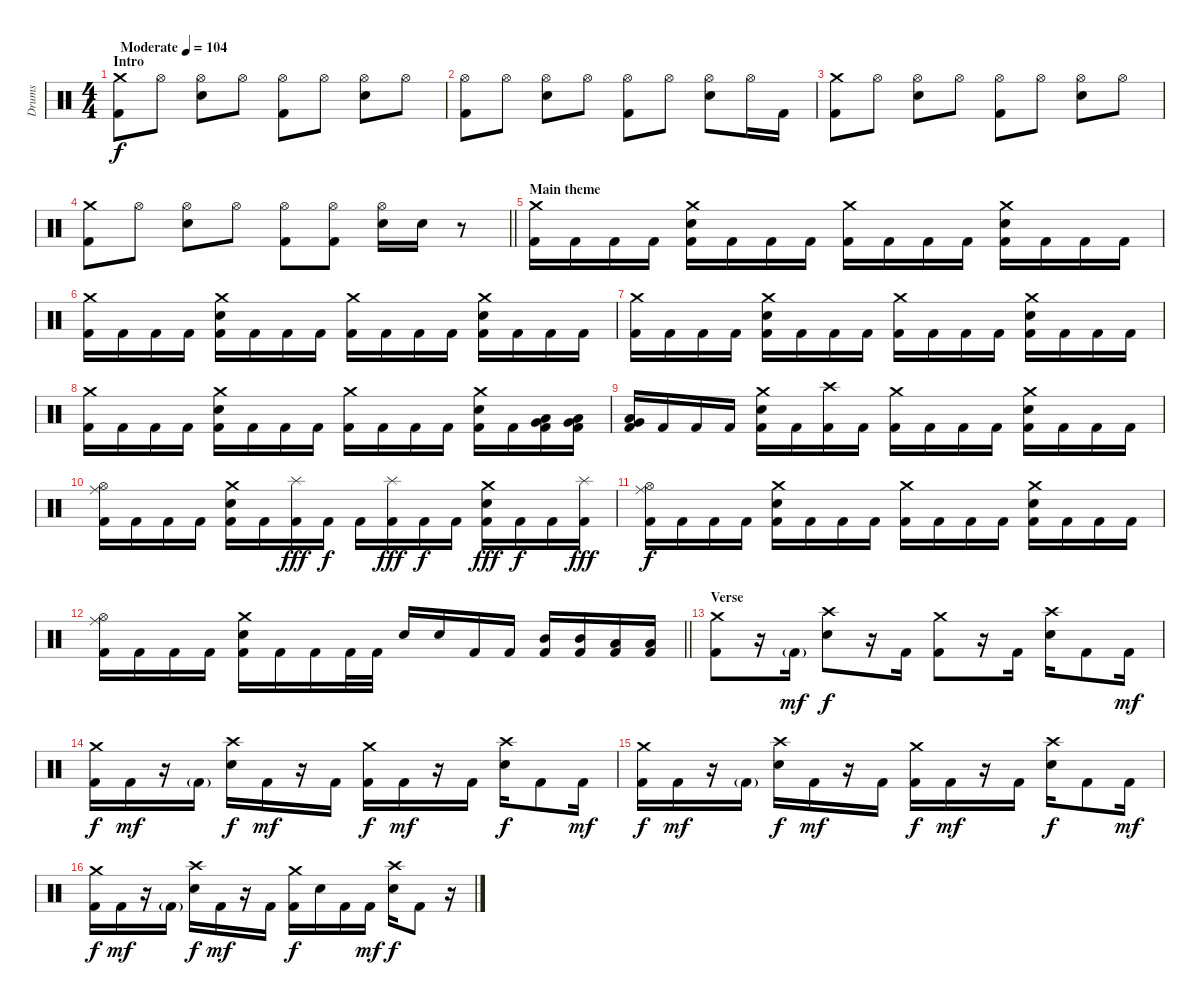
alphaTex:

\track ("Drums" "Drums") {instrument percussion}
\staff {score}
\articulation defaults
\ts (4 4)
\section ("" "Intro")
\tempo (104 "Moderate")
\clef neutral
\ks c
("Crash medium (hit)" "Kick (hit) 2").8{dy f} "Hi-Hat (open)".8 ("Hi-Hat (open)" "Electric Snare (hit)").8 "Hi-Hat (open)".8 ("Hi-Hat (open)" "Kick (hit) 2").8 "Hi-Hat (open)".8 ("Hi-Hat (open)" "Electric Snare (hit)").8 "Hi-Hat (open)".8 |
("Hi-Hat (open)" "Kick (hit) 2").8 "Hi-Hat (open)".8 ("Hi-Hat (open)" "Electric Snare (hit)").8 "Hi-Hat (open)".8 ("Hi-Hat (open)" "Kick (hit) 2").8 "Hi-Hat (open)".8 ("Hi-Hat (open)" "Electric Snare (hit)").8 "Hi-Hat (open)".16 "Kick (hit) 2".16 |
("Crash medium (hit)" "Kick (hit) 2").8 "Hi-Hat (open)".8 ("Hi-Hat (open)" "Electric Snare (hit)").8 "Hi-Hat (open)".8 ("Hi-Hat (open)" "Kick (hit) 2").8 "Hi-Hat (open)".8 ("Hi-Hat (open)" "Electric Snare (hit)").8 "Hi-Hat (open)".8 |
\barLineRight lightlight
("Crash medium (hit)" "Kick (hit) 2").8 "Hi-Hat (open)".8 ("Hi-Hat (open)" "Electric Snare (hit)").8 "Hi-Hat (open)".8 ("Hi-Hat (open)" "Kick (hit) 2").8 ("Hi-Hat (open)" "Kick (hit) 2").8 ("Hi-Hat (open)" "Electric Snare (hit)").16 "Electric Snare (hit)".16 r.8 |
\section ("" "Main theme")
("Crash medium (hit)" "Kick (hit) 2").16 "Kick (hit) 2".16 "Kick (hit) 2".16 "Kick (hit) 2".16 ("Crash medium (hit)" "Electric Snare (hit)" "Kick (hit) 2").16 "Kick (hit) 2".16 "Kick (hit) 2".16 "Kick (hit) 2".16 ("Crash medium (hit)" "Kick (hit) 2").16 "Kick (hit) 2".16 "Kick (hit) 2".16 "Kick (hit) 2".16 ("Crash medium (hit)" "Electric Snare (hit)" "Kick (hit) 2").16 "Kick (hit) 2".16 "Kick (hit) 2".16 "Kick (hit) 2".16 |
("Crash medium (hit)" "Kick (hit) 2").16 "Kick (hit) 2".16 "Kick (hit) 2".16 "Kick (hit) 2".16 ("Crash medium (hit)" "Electric Snare (hit)" "Kick (hit) 2").16 "Kick (hit) 2".16 "Kick (hit) 2".16 "Kick (hit) 2".16 ("Crash medium (hit)" "Kick (hit) 2").16 "Kick (hit) 2".16 "Kick (hit) 2".16 "Kick (hit) 2".16 ("Crash medium (hit)" "Electric Snare (hit)" "Kick (hit) 2").16 "Kick (hit) 2".16 "Kick (hit) 2".16 "Kick (hit) 2".16 |
("Crash medium (hit)" "Kick (hit) 2").16 "Kick (hit) 2".16 "Kick (hit) 2".16 "Kick (hit) 2".16 ("Crash medium (hit)" "Electric Snare (hit)" "Kick (hit) 2").16 "Kick (hit) 2".16 "Kick (hit) 2".16 "Kick (hit) 2".16 ("Crash medium (hit)" "Kick (hit) 2").16 "Kick (hit) 2".16 "Kick (hit) 2".16 "Kick (hit) 2".16 ("Crash medium (hit)" "Electric Snare (hit)" "Kick (hit) 2").16 "Kick (hit) 2".16 "Kick (hit) 2".16 "Kick (hit) 2".16 |
("Crash medium (hit)" "Kick (hit) 2").16 "Kick (hit) 2".16 "Kick (hit) 2".16 "Kick (hit) 2".16 ("Crash medium (hit)" "Electric Snare (hit)" "Kick (hit) 2").16 "Kick (hit) 2".16 "Kick (hit) 2".16 "Kick (hit) 2".16 ("Crash medium (hit)" "Kick (hit) 2").16 "Kick (hit) 2".16 "Kick (hit) 2".16 "Kick (hit) 2".16 ("Crash medium (hit)" "Electric Snare (hit)" "Kick (hit) 2").16 "Kick (hit) 2".16 ("Low Tom (hit)" "Very Low Tom (hit)" "Kick (hit) 2").16 ("Low Tom (hit)" "Very Low Tom (hit)" "Kick (hit) 2").16 |
("Low Tom (hit)" "Very Low Tom (hit)" "Kick (hit) 2").16 "Kick (hit) 2".16 "Kick (hit) 2".16 "Kick (hit) 2".16 ("Crash medium (hit)" "Electric Snare (hit)" "Kick (hit) 2").16 "Kick (hit) 2".16 ("Crash high (hit)" "Kick (hit) 2").16 "Kick (hit) 2".16 ("Crash medium (hit)" "Kick (hit) 2").16 "Kick (hit) 2".16 "Kick (hit) 2".16 "Kick (hit) 2".16 ("Crash medium (hit)" "Electric Snare (hit)" "Kick (hit) 2").16 "Kick (hit) 2".16 "Kick (hit) 2".16 "Kick (hit) 2".16 |
("Ride (middle)" "Hi-Hat (open)" "Kick (hit) 2").16 "Kick (hit) 2".16 "Kick (hit) 2".16 "Kick (hit) 2".16 ("Crash medium (hit)" "Electric Snare (hit)" "Kick (hit) 2").16 "Kick (hit) 2".16 ("Splash (hit)" "Kick (hit) 2").16{dy fff} "Kick (hit) 2".16{dy f} "Kick (hit) 2".16 ("Splash (hit)" "Kick (hit) 2").16{dy fff} "Kick (hit) 2".16{dy f} "Kick (hit) 2".16 ("Crash medium (hit)" "Electric Snare (hit)" "Kick (hit) 2").16{dy fff} "Kick (hit) 2".16{dy f} "Kick (hit) 2".16 ("Splash (hit)" "Kick (hit) 2").16{dy fff} |
("Ride (middle)" "Hi-Hat (open)" "Kick (hit) 2").16{dy f} "Kick (hit) 2".16 "Kick (hit) 2".16 "Kick (hit) 2".16 ("Crash medium (hit)" "Electric Snare (hit)" "Kick (hit) 2").16 "Kick (hit) 2".16 "Kick (hit) 2".16 "Kick (hit) 2".16 ("Crash medium (hit)" "Kick (hit) 2").16 "Kick (hit) 2".16 "Kick (hit) 2".16 "Kick (hit) 2".16 ("Crash medium (hit)" "Electric Snare (hit)" "Kick (hit) 2").16 "Kick (hit) 2".16 "Kick (hit) 2".16 "Kick (hit) 2".16 |
\barLineRight lightlight
("Ride (middle)" "Hi-Hat (open)" "Kick (hit) 2").16 "Kick (hit) 2".16 "Kick (hit) 2".16 "Kick (hit) 2".16 ("Crash medium (hit)" "Electric Snare (hit)" "Kick (hit) 2").16 "Kick (hit) 2".16 "Kick (hit) 2".16 "Kick (hit) 2".32 "Kick (hit) 2".32 "Electric Snare (hit)".16 "Electric Snare (hit)".16 "Kick (hit) 2".16 "Kick (hit) 2".16 ("Mid Tom (hit)" "Kick (hit) 2").16 ("Mid Tom (hit)" "Kick (hit) 2").16 ("Low Tom (hit)" "Kick (hit) 2").16 ("Low Tom (hit)" "Kick (hit) 2").16 |
\section ("" "Verse")
("Crash medium (hit)" "Kick (hit) 2").8 r.16 "Kick (hit) 2"{g}.16{dy mf} ("Crash high (hit)" "Electric Snare (hit)").8{dy f} r.16 "Kick (hit) 2".16 ("Crash medium (hit)" "Kick (hit) 2").8 r.16 "Kick (hit) 2".16 ("Crash high (hit)" "Electric Snare (hit)").16 "Kick (hit) 2".8 "Kick (hit) 2".16{dy mf} |
("Crash medium (hit)" "Kick (hit) 2").16{dy f} "Kick (hit) 2".16{dy mf} r.16 "Kick (hit) 2"{g}.16 ("Crash high (hit)" "Electric Snare (hit)").16{dy f} "Kick (hit) 2".16{dy mf} r.16 "Kick (hit) 2".16 ("Crash medium (hit)" "Kick (hit) 2").16{dy f} "Kick (hit) 2".16{dy mf} r.16 "Kick (hit) 2".16 ("Crash high (hit)" "Electric Snare (hit)").16{dy f} "Kick (hit) 2".8 "Kick (hit) 2".16{dy mf} |
("Crash medium (hit)" "Kick (hit) 2").16{dy f} "Kick (hit) 2".16{dy mf} r.16 "Kick (hit) 2"{g}.16 ("Crash high (hit)" "Electric Snare (hit)").16{dy f} "Kick (hit) 2".16{dy mf} r.16 "Kick (hit) 2".16 ("Crash medium (hit)" "Kick (hit) 2").16{dy f} "Kick (hit) 2".16{dy mf} r.16 "Kick (hit) 2".16 ("Crash high (hit)" "Electric Snare (hit)").16{dy f} "Kick (hit) 2".8 "Kick (hit) 2".16{dy mf} |
("Crash medium (hit)" "Kick (hit) 2").16{dy f} "Kick (hit) 2".16{dy mf} r.16 "Kick (hit) 2"{g}.16 ("Crash high (hit)" "Electric Snare (hit)").16{dy f} "Kick (hit) 2".16{dy mf} r.16 "Kick (hit) 2".16 ("Crash medium (hit)" "Kick (hit) 2").16{dy f} "Electric Snare (hit)".16 "Kick (hit) 2".16 "Kick (hit) 2".16{dy mf} ("Crash high (hit)" "Electric Snare (hit)").16{dy f} "Kick (hit) 2".8 r.16
